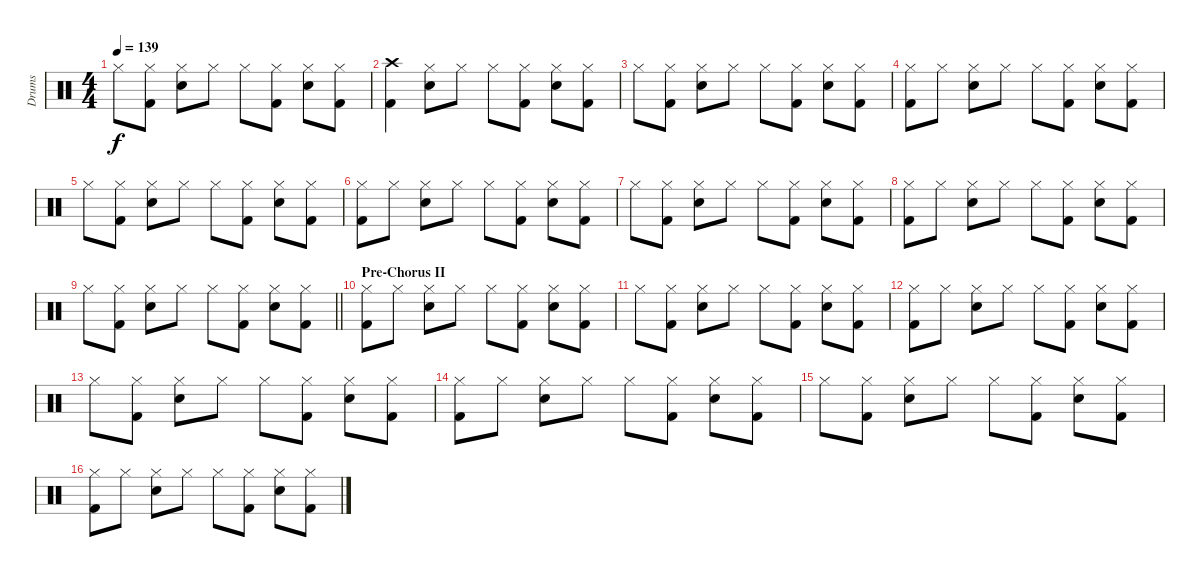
\track ("Drums" "Drums") {instrument percussion}
\staff {score}
\articulation defaults
\ts (4 4)
\tempo 139
\clef neutral
\ks c "Hi-Hat (closed)".8{dy f}
("Hi-Hat (closed)" "Kick (hit) 2").8 ("Hi-Hat (closed)" "Snare (hit) 2").8 "Hi-Hat (closed)".8 "Hi-Hat (closed)".8 ("Hi-Hat (closed)" "Kick (hit) 2").8 ("Hi-Hat (closed)" "Snare (hit) 2").8 ("Hi-Hat (closed)" "Kick (hit) 2").8 |
("Crash high (hit)" "Kick (hit) 2").4 ("Hi-Hat (closed)" "Snare (hit) 2").8 "Hi-Hat (closed)".8 "Hi-Hat (closed)".8 ("Hi-Hat (closed)" "Kick (hit) 2").8 ("Hi-Hat (closed)" "Snare (hit) 2").8 ("Hi-Hat (closed)" "Kick (hit) 2").8 |
"Hi-Hat (closed)".8 ("Hi-Hat (closed)" "Kick (hit) 2").8 ("Hi-Hat (closed)" "Snare (hit) 2").8 "Hi-Hat (closed)".8 "Hi-Hat (closed)".8 ("Hi-Hat (closed)" "Kick (hit) 2").8 ("Hi-Hat (closed)" "Snare (hit) 2").8 ("Hi-Hat (closed)" "Kick (hit) 2").8 |
("Hi-Hat (closed)" "Kick (hit) 2").8 "Hi-Hat (closed)".8 ("Hi-Hat (closed)" "Snare (hit) 2").8 "Hi-Hat (closed)".8 "Hi-Hat (closed)".8 ("Hi-Hat (closed)" "Kick (hit) 2").8 ("Hi-Hat (closed)" "Snare (hit) 2").8 ("Hi-Hat (closed)" "Kick (hit) 2").8 |
"Hi-Hat (closed)".8 ("Hi-Hat (closed)" "Kick (hit) 2").8 ("Hi-Hat (closed)" "Snare (hit) 2").8 "Hi-Hat (closed)".8 "Hi-Hat (closed)".8 ("Hi-Hat (closed)" "Kick (hit) 2").8 ("Hi-Hat (closed)" "Snare (hit) 2").8 ("Hi-Hat (closed)" "Kick (hit) 2").8 |
("Hi-Hat (closed)" "Kick (hit) 2").8 "Hi-Hat (closed)".8 ("Hi-Hat (closed)" "Snare (hit) 2").8 "Hi-Hat (closed)".8 "Hi-Hat (closed)".8 ("Hi-Hat (closed)" "Kick (hit) 2").8 ("Hi-Hat (closed)" "Snare (hit) 2").8 ("Hi-Hat (closed)" "Kick (hit) 2").8 |
"Hi-Hat (closed)".8 ("Hi-Hat (closed)" "Kick (hit) 2").8 ("Hi-Hat (closed)" "Snare (hit) 2").8 "Hi-Hat (closed)".8 "Hi-Hat (closed)".8 ("Hi-Hat (closed)" "Kick (hit) 2").8 ("Hi-Hat (closed)" "Snare (hit) 2").8 ("Hi-Hat (closed)" "Kick (hit) 2").8 |
("Hi-Hat (closed)" "Kick (hit) 2").8 "Hi-Hat (closed)".8 ("Hi-Hat (closed)" "Snare (hit) 2").8 "Hi-Hat (closed)".8 "Hi-Hat (closed)".8 ("Hi-Hat (closed)" "Kick (hit) 2").8 ("Hi-Hat (closed)" "Snare (hit) 2").8 ("Hi-Hat (closed)" "Kick (hit) 2").8 |
\barLineRight lightlight "Hi-Hat (closed)".8
("Hi-Hat (closed)" "Kick (hit) 2").8 ("Hi-Hat (closed)" "Snare (hit) 2").8 "Hi-Hat (closed)".8 "Hi-Hat (closed)".8 ("Hi-Hat (closed)" "Kick (hit) 2").8 ("Hi-Hat (closed)" "Snare (hit) 2").8 ("Hi-Hat (closed)" "Kick (hit) 2").8 |
\section ("" "Pre-Chorus II")
("Hi-Hat (closed)" "Kick (hit) 2").8 "Hi-Hat (closed)".8 ("Hi-Hat (closed)" "Snare (hit) 2").8 "Hi-Hat (closed)".8 "Hi-Hat (closed)".8 ("Hi-Hat (closed)" "Kick (hit) 2").8 ("Hi-Hat (closed)" "Snare (hit) 2").8 ("Hi-Hat (closed)" "Kick (hit) 2").8 |
"Hi-Hat (closed)".8 ("Hi-Hat (closed)" "Kick (hit) 2").8 ("Hi-Hat (closed)" "Snare (hit) 2").8 "Hi-Hat (closed)".8 "Hi-Hat (closed)".8 ("Hi-Hat (closed)" "Kick (hit) 2").8 ("Hi-Hat (closed)" "Snare (hit) 2").8 ("Hi-Hat (closed)" "Kick (hit) 2").8 |
("Hi-Hat (closed)" "Kick (hit) 2").8 "Hi-Hat (closed)".8 ("Hi-Hat (closed)" "Snare (hit) 2").8 "Hi-Hat (closed)".8 "Hi-Hat (closed)".8 ("Hi-Hat (closed)" "Kick (hit) 2").8 ("Hi-Hat (closed)" "Snare (hit) 2").8 ("Hi-Hat (closed)" "Kick (hit) 2").8 |
"Hi-Hat (closed)".8 ("Hi-Hat (closed)" "Kick (hit) 2").8 ("Hi-Hat (closed)" "Snare (hit) 2").8 "Hi-Hat (closed)".8 "Hi-Hat (closed)".8 ("Hi-Hat (closed)" "Kick (hit) 2").8 ("Hi-Hat (closed)" "Snare (hit) 2").8 ("Hi-Hat (closed)" "Kick (hit) 2").8 |
("Hi-Hat (closed)" "Kick (hit) 2").8 "Hi-Hat (closed)".8 ("Hi-Hat (closed)" "Snare (hit) 2").8 "Hi-Hat (closed)".8 "Hi-Hat (closed)".8 ("Hi-Hat (closed)" "Kick (hit) 2").8 ("Hi-Hat (closed)" "Snare (hit) 2").8 ("Hi-Hat (closed)" "Kick (hit) 2").8 |
"Hi-Hat (closed)".8 ("Hi-Hat (closed)" "Kick (hit) 2").8 ("Hi-Hat (closed)" "Snare (hit) 2").8 "Hi-Hat (closed)".8 "Hi-Hat (closed)".8 ("Hi-Hat (closed)" "Kick (hit) 2").8 ("Hi-Hat (closed)" "Snare (hit) 2").8 ("Hi-Hat (closed)" "Kick (hit) 2").8 |
("Hi-Hat (closed)" "Kick (hit) 2").8 "Hi-Hat (closed)".8 ("Hi-Hat (closed)" "Snare (hit) 2").8 "Hi-Hat (closed)".8 "Hi-Hat (closed)".8 ("Hi-Hat (closed)" "Kick (hit) 2").8 ("Hi-Hat (closed)" "Snare (hit) 2").8 ("Hi-Hat (closed)" "Kick (hit) 2").8
